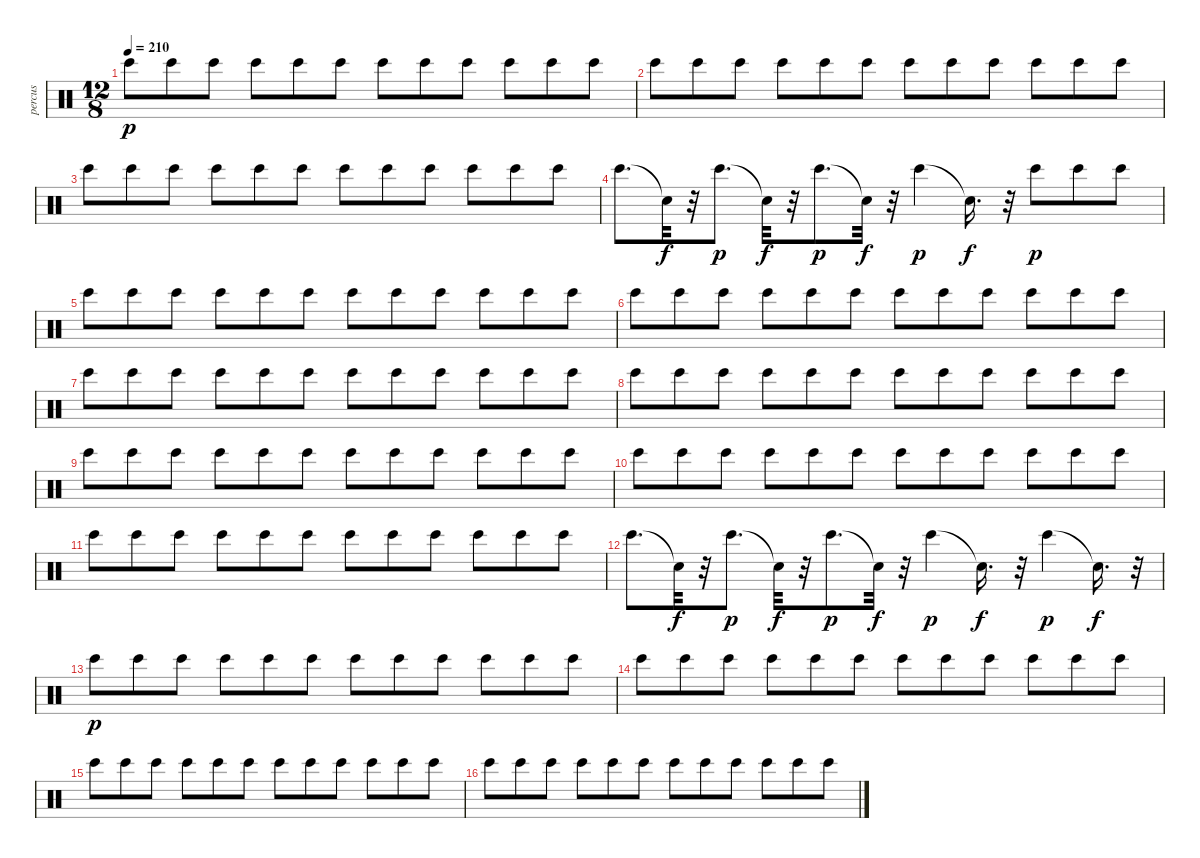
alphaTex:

\track ("percus" "percus") {instrument percussion}
\staff {score}
\articulation defaults
\ts (12 8)
\tempo 210
\clef neutral
\ks c "Bongo High (hit)".8{dy p} "Bongo High (hit)".8 "Bongo High (hit)".8 "Bongo High (hit)".8 "Bongo High (hit)".8 "Bongo High (hit)".8 "Bongo High (hit)".8 "Bongo High (hit)".8 "Bongo High (hit)".8 "Bongo High (hit)".8 "Bongo High (hit)".8 "Bongo High (hit)".8
|
"Bongo High (hit)".8 "Bongo High (hit)".8 "Bongo High (hit)".8 "Bongo High (hit)".8 "Bongo High (hit)".8 "Bongo High (hit)".8 "Bongo High (hit)".8 "Bongo High (hit)".8 "Bongo High (hit)".8 "Bongo High (hit)".8 "Bongo High (hit)".8 "Bongo High (hit)".8 |
"Bongo High (hit)".8 "Bongo High (hit)".8 "Bongo High (hit)".8 "Bongo High (hit)".8 "Bongo High (hit)".8 "Bongo High (hit)".8 "Bongo High (hit)".8 "Bongo High (hit)".8 "Bongo High (hit)".8 "Bongo High (hit)".8 "Bongo High (hit)".8 "Bongo High (hit)".8 |
"Bongo High (hit)".8{d} "Snare (hit)"{t}.32{dy f} r.32 "Bongo High (hit)".8{d dy p} "Snare (hit)"{t}.32{dy f} r.32 "Bongo High (hit)".8{d dy p} "Snare (hit)"{t}.32{dy f} r.32 "Bongo High (hit)".4{dy p} "Snare (hit)"{t}.16{d dy f} r.32 "Bongo High (hit)".8{dy p} "Bongo High (hit)".8 "Bongo High (hit)".8 |
"Bongo High (hit)".8 "Bongo High (hit)".8 "Bongo High (hit)".8 "Bongo High (hit)".8 "Bongo High (hit)".8 "Bongo High (hit)".8 "Bongo High (hit)".8 "Bongo High (hit)".8 "Bongo High (hit)".8 "Bongo High (hit)".8 "Bongo High (hit)".8 "Bongo High (hit)".8 |
"Bongo High (hit)".8 "Bongo High (hit)".8 "Bongo High (hit)".8 "Bongo High (hit)".8 "Bongo High (hit)".8 "Bongo High (hit)".8 "Bongo High (hit)".8 "Bongo High (hit)".8 "Bongo High (hit)".8 "Bongo High (hit)".8 "Bongo High (hit)".8 "Bongo High (hit)".8 |
"Bongo High (hit)".8 "Bongo High (hit)".8 "Bongo High (hit)".8 "Bongo High (hit)".8 "Bongo High (hit)".8 "Bongo High (hit)".8 "Bongo High (hit)".8 "Bongo High (hit)".8 "Bongo High (hit)".8 "Bongo High (hit)".8 "Bongo High (hit)".8 "Bongo High (hit)".8 |
"Bongo High (hit)".8 "Bongo High (hit)".8 "Bongo High (hit)".8 "Bongo High (hit)".8 "Bongo High (hit)".8 "Bongo High (hit)".8 "Bongo High (hit)".8 "Bongo High (hit)".8 "Bongo High (hit)".8 "Bongo High (hit)".8 "Bongo High (hit)".8 "Bongo High (hit)".8 |
"Bongo High (hit)".8 "Bongo High (hit)".8 "Bongo High (hit)".8 "Bongo High (hit)".8 "Bongo High (hit)".8 "Bongo High (hit)".8 "Bongo High (hit)".8 "Bongo High (hit)".8 "Bongo High (hit)".8 "Bongo High (hit)".8 "Bongo High (hit)".8 "Bongo High (hit)".8 |
"Bongo High (hit)".8 "Bongo High (hit)".8 "Bongo High (hit)".8 "Bongo High (hit)".8 "Bongo High (hit)".8 "Bongo High (hit)".8 "Bongo High (hit)".8 "Bongo High (hit)".8 "Bongo High (hit)".8 "Bongo High (hit)".8 "Bongo High (hit)".8 "Bongo High (hit)".8 |
"Bongo High (hit)".8 "Bongo High (hit)".8 "Bongo High (hit)".8 "Bongo High (hit)".8 "Bongo High (hit)".8 "Bongo High (hit)".8 "Bongo High (hit)".8 "Bongo High (hit)".8 "Bongo High (hit)".8 "Bongo High (hit)".8 "Bongo High (hit)".8 "Bongo High (hit)".8 |
"Bongo High (hit)".8{d} "Snare (hit)"{t}.32{dy f} r.32 "Bongo High (hit)".8{d dy p} "Snare (hit)"{t}.32{dy f} r.32 "Bongo High (hit)".8{d dy p} "Snare (hit)"{t}.32{dy f} r.32 "Bongo High (hit)".4{dy p} "Snare (hit)"{t}.16{d dy f} r.32 "Bongo High (hit)".4{dy p} "Snare (hit)"{t}.16{d dy f} r.32 |
"Bongo High (hit)".8{dy p} "Bongo High (hit)".8 "Bongo High (hit)".8 "Bongo High (hit)".8 "Bongo High (hit)".8 "Bongo High (hit)".8 "Bongo High (hit)".8 "Bongo High (hit)".8 "Bongo High (hit)".8 "Bongo High (hit)".8 "Bongo High (hit)".8 "Bongo High (hit)".8 |
"Bongo High (hit)".8 "Bongo High (hit)".8 "Bongo High (hit)".8 "Bongo High (hit)".8 "Bongo High (hit)".8 "Bongo High (hit)".8 "Bongo High (hit)".8 "Bongo High (hit)".8 "Bongo High (hit)".8 "Bongo High (hit)".8 "Bongo High (hit)".8 "Bongo High (hit)".8 |
"Bongo High (hit)".8 "Bongo High (hit)".8 "Bongo High (hit)".8 "Bongo High (hit)".8 "Bongo High (hit)".8 "Bongo High (hit)".8 "Bongo High (hit)".8 "Bongo High (hit)".8 "Bongo High (hit)".8 "Bongo High (hit)".8 "Bongo High (hit)".8 "Bongo High (hit)".8 |
"Bongo High (hit)".8 "Bongo High (hit)".8 "Bongo High (hit)".8 "Bongo High (hit)".8 "Bongo High (hit)".8 "Bongo High (hit)".8 "Bongo High (hit)".8 "Bongo High (hit)".8 "Bongo High (hit)".8 "Bongo High (hit)".8 "Bongo High (hit)".8 "Bongo High (hit)".8
